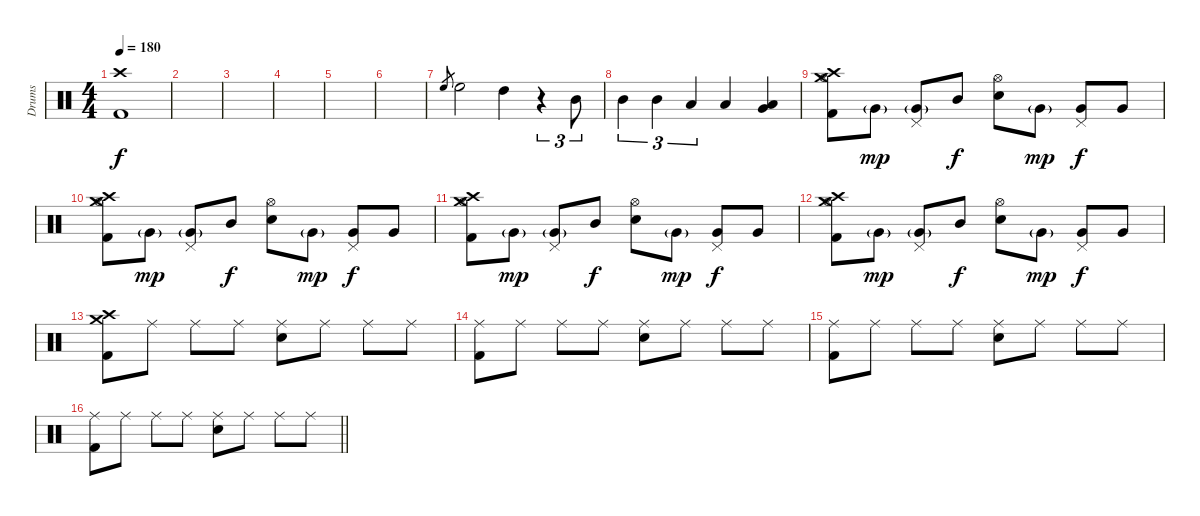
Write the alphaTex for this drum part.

\track ("Drums" "Drums") {instrument percussion}
\staff {score}
\articulation defaults
\ts (4 4)
\tempo 180
\clef neutral
\ks c
("Crash high (hit)" "Kick (hit) 2").1{dy f} |
|
|
|
|
|
"High Floor Tom (hit)".8{gr} "High Floor Tom (hit)".2 "High Tom (hit)".4 r.4{tu (3 2)} "Mid Tom (hit)".8{tu (3 2)} |
"Mid Tom (hit)".4{tu (3 2)} "Mid Tom (hit)".4{tu (3 2)} "Low Tom (hit)".4{tu (3 2)} "Low Tom (hit)".4 ("Very Low Tom (hit)" "Low Floor Tom (hit)").4 |
("Crash medium (hit)" "Crash high (hit)" "Hi-Hat (open)" "Kick (hit) 2").8 "Very Low Tom (hit)"{g}.8{dy mp} ("Very Low Tom (hit)"{g} "Pedal Hi-Hat (hit)").8 "Mid Tom (hit)".8{dy f} ("Snare (hit) 2" "Hi-Hat (open)").8 "Very Low Tom (hit)"{g}.8{dy mp} ("Very Low Tom (hit)" "Pedal Hi-Hat (hit)").8{dy f} "Very Low Tom (hit)".8 |
("Crash medium (hit)" "Crash high (hit)" "Hi-Hat (open)" "Kick (hit) 2").8 "Very Low Tom (hit)"{g}.8{dy mp} ("Very Low Tom (hit)"{g} "Pedal Hi-Hat (hit)").8 "Mid Tom (hit)".8{dy f} ("Snare (hit) 2" "Hi-Hat (open)").8 "Very Low Tom (hit)"{g}.8{dy mp} ("Very Low Tom (hit)" "Pedal Hi-Hat (hit)").8{dy f} "Very Low Tom (hit)".8 |
("Crash medium (hit)" "Crash high (hit)" "Hi-Hat (open)" "Kick (hit) 2").8 "Very Low Tom (hit)"{g}.8{dy mp} ("Very Low Tom (hit)"{g} "Pedal Hi-Hat (hit)").8 "Mid Tom (hit)".8{dy f} ("Snare (hit) 2" "Hi-Hat (open)").8 "Very Low Tom (hit)"{g}.8{dy mp} ("Very Low Tom (hit)" "Pedal Hi-Hat (hit)").8{dy f} "Very Low Tom (hit)".8 |
("Crash medium (hit)" "Crash high (hit)" "Hi-Hat (open)" "Kick (hit) 2").8 "Very Low Tom (hit)"{g}.8{dy mp} ("Very Low Tom (hit)"{g} "Pedal Hi-Hat (hit)").8 "Mid Tom (hit)".8{dy f} ("Snare (hit) 2" "Hi-Hat (open)").8 "Very Low Tom (hit)"{g}.8{dy mp} ("Very Low Tom (hit)" "Pedal Hi-Hat (hit)").8{dy f} "Very Low Tom (hit)".8 |
("Crash medium (hit)" "Crash high (hit)" "Kick (hit) 2").8 "Ride (middle)".8 "Ride (middle)".8 "Ride (middle)".8 ("Ride (middle)" "Snare (hit) 2").8 "Ride (middle)".8 "Ride (middle)".8 "Ride (middle)".8 |
("Ride (middle)" "Kick (hit) 2").8 "Ride (middle)".8 "Ride (middle)".8 "Ride (middle)".8 ("Ride (middle)" "Snare (hit) 2").8 "Ride (middle)".8 "Ride (middle)".8 "Ride (middle)".8 |
("Ride (middle)" "Kick (hit) 2").8 "Ride (middle)".8 "Ride (middle)".8 "Ride (middle)".8 ("Ride (middle)" "Snare (hit) 2").8 "Ride (middle)".8 "Ride (middle)".8 "Ride (middle)".8 |
\barLineRight lightlight
("Ride (middle)" "Kick (hit) 2").8 "Ride (middle)".8 "Ride (middle)".8 "Ride (middle)".8 ("Ride (middle)" "Snare (hit) 2").8 "Ride (middle)".8 "Ride (middle)".8 "Ride (middle)".8
